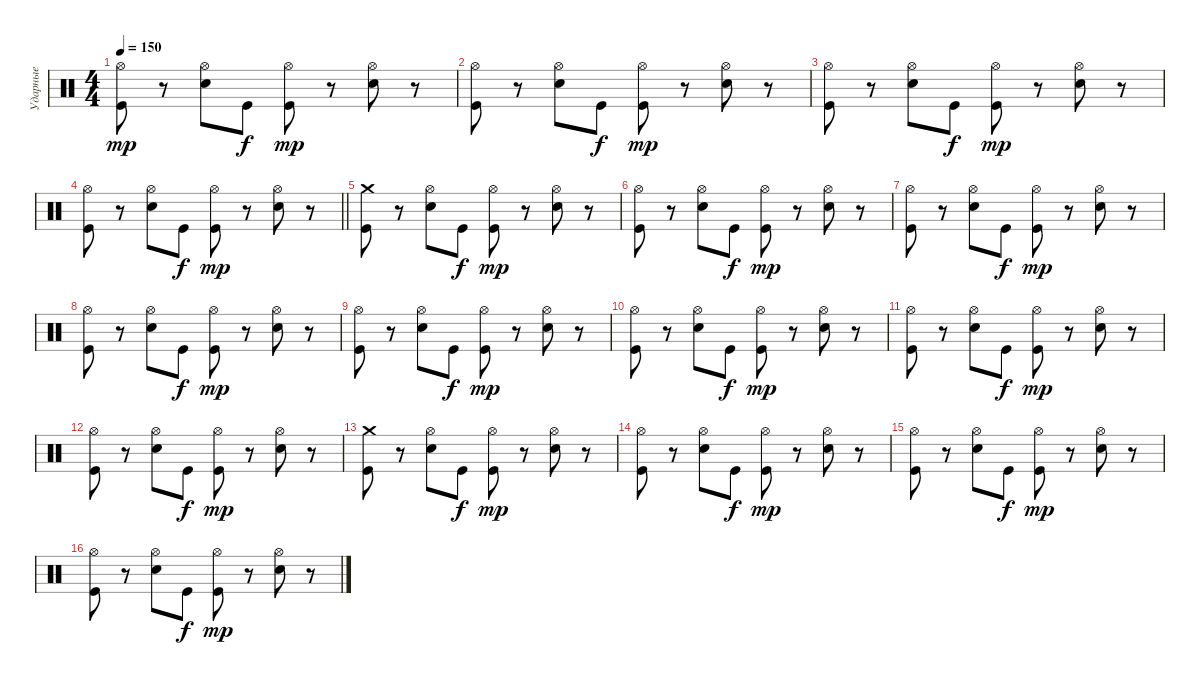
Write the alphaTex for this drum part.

\track ("Ударные" "Ударные") {instrument percussion}
\staff {score}
\articulation defaults
\ts (4 4)
\tempo 150
\clef neutral
\ks c
("Hi-Hat (open)" "Kick (hit)").8{dy mp} r.8 ("Hi-Hat (open)" "Electric Snare (hit)").8 "Kick (hit)".8{dy f} ("Hi-Hat (open)" "Kick (hit)").8{dy mp} r.8 ("Hi-Hat (open)" "Electric Snare (hit)").8 r.8 |
("Hi-Hat (open)" "Kick (hit)").8 r.8 ("Hi-Hat (open)" "Electric Snare (hit)").8 "Kick (hit)".8{dy f} ("Hi-Hat (open)" "Kick (hit)").8{dy mp} r.8 ("Hi-Hat (open)" "Electric Snare (hit)").8 r.8 |
("Hi-Hat (open)" "Kick (hit)").8 r.8 ("Hi-Hat (open)" "Electric Snare (hit)").8 "Kick (hit)".8{dy f} ("Hi-Hat (open)" "Kick (hit)").8{dy mp} r.8 ("Hi-Hat (open)" "Electric Snare (hit)").8 r.8 |
\barLineRight lightlight
("Hi-Hat (open)" "Kick (hit)").8 r.8 ("Hi-Hat (open)" "Electric Snare (hit)").8 "Kick (hit)".8{dy f} ("Hi-Hat (open)" "Kick (hit)").8{dy mp} r.8 ("Hi-Hat (open)" "Electric Snare (hit)").8 r.8 |
\section ("" " ")
("Crash medium (hit)" "Kick (hit)").8 r.8 ("Hi-Hat (open)" "Electric Snare (hit)").8 "Kick (hit)".8{dy f} ("Hi-Hat (open)" "Kick (hit)").8{dy mp} r.8 ("Hi-Hat (open)" "Electric Snare (hit)").8 r.8 |
("Hi-Hat (open)" "Kick (hit)").8 r.8 ("Hi-Hat (open)" "Electric Snare (hit)").8 "Kick (hit)".8{dy f} ("Hi-Hat (open)" "Kick (hit)").8{dy mp} r.8 ("Hi-Hat (open)" "Electric Snare (hit)").8 r.8 |
("Hi-Hat (open)" "Kick (hit)").8 r.8 ("Hi-Hat (open)" "Electric Snare (hit)").8 "Kick (hit)".8{dy f} ("Hi-Hat (open)" "Kick (hit)").8{dy mp} r.8 ("Hi-Hat (open)" "Electric Snare (hit)").8 r.8 |
("Hi-Hat (open)" "Kick (hit)").8 r.8 ("Hi-Hat (open)" "Electric Snare (hit)").8 "Kick (hit)".8{dy f} ("Hi-Hat (open)" "Kick (hit)").8{dy mp} r.8 ("Hi-Hat (open)" "Electric Snare (hit)").8 r.8 |
("Hi-Hat (open)" "Kick (hit)").8 r.8 ("Hi-Hat (open)" "Electric Snare (hit)").8 "Kick (hit)".8{dy f} ("Hi-Hat (open)" "Kick (hit)").8{dy mp} r.8 ("Hi-Hat (open)" "Electric Snare (hit)").8 r.8 |
("Hi-Hat (open)" "Kick (hit)").8 r.8 ("Hi-Hat (open)" "Electric Snare (hit)").8 "Kick (hit)".8{dy f} ("Hi-Hat (open)" "Kick (hit)").8{dy mp} r.8 ("Hi-Hat (open)" "Electric Snare (hit)").8 r.8 |
("Hi-Hat (open)" "Kick (hit)").8 r.8 ("Hi-Hat (open)" "Electric Snare (hit)").8 "Kick (hit)".8{dy f} ("Hi-Hat (open)" "Kick (hit)").8{dy mp} r.8 ("Hi-Hat (open)" "Electric Snare (hit)").8 r.8 |
("Hi-Hat (open)" "Kick (hit)").8 r.8 ("Hi-Hat (open)" "Electric Snare (hit)").8 "Kick (hit)".8{dy f} ("Hi-Hat (open)" "Kick (hit)").8{dy mp} r.8 ("Hi-Hat (open)" "Electric Snare (hit)").8 r.8 |
("Crash medium (hit)" "Kick (hit)").8 r.8 ("Hi-Hat (open)" "Electric Snare (hit)").8 "Kick (hit)".8{dy f} ("Hi-Hat (open)" "Kick (hit)").8{dy mp} r.8 ("Hi-Hat (open)" "Electric Snare (hit)").8 r.8 |
("Hi-Hat (open)" "Kick (hit)").8 r.8 ("Hi-Hat (open)" "Electric Snare (hit)").8 "Kick (hit)".8{dy f} ("Hi-Hat (open)" "Kick (hit)").8{dy mp} r.8 ("Hi-Hat (open)" "Electric Snare (hit)").8 r.8 |
("Hi-Hat (open)" "Kick (hit)").8 r.8 ("Hi-Hat (open)" "Electric Snare (hit)").8 "Kick (hit)".8{dy f} ("Hi-Hat (open)" "Kick (hit)").8{dy mp} r.8 ("Hi-Hat (open)" "Electric Snare (hit)").8 r.8 |
("Hi-Hat (open)" "Kick (hit)").8 r.8 ("Hi-Hat (open)" "Electric Snare (hit)").8 "Kick (hit)".8{dy f} ("Hi-Hat (open)" "Kick (hit)").8{dy mp} r.8 ("Hi-Hat (open)" "Electric Snare (hit)").8 r.8
